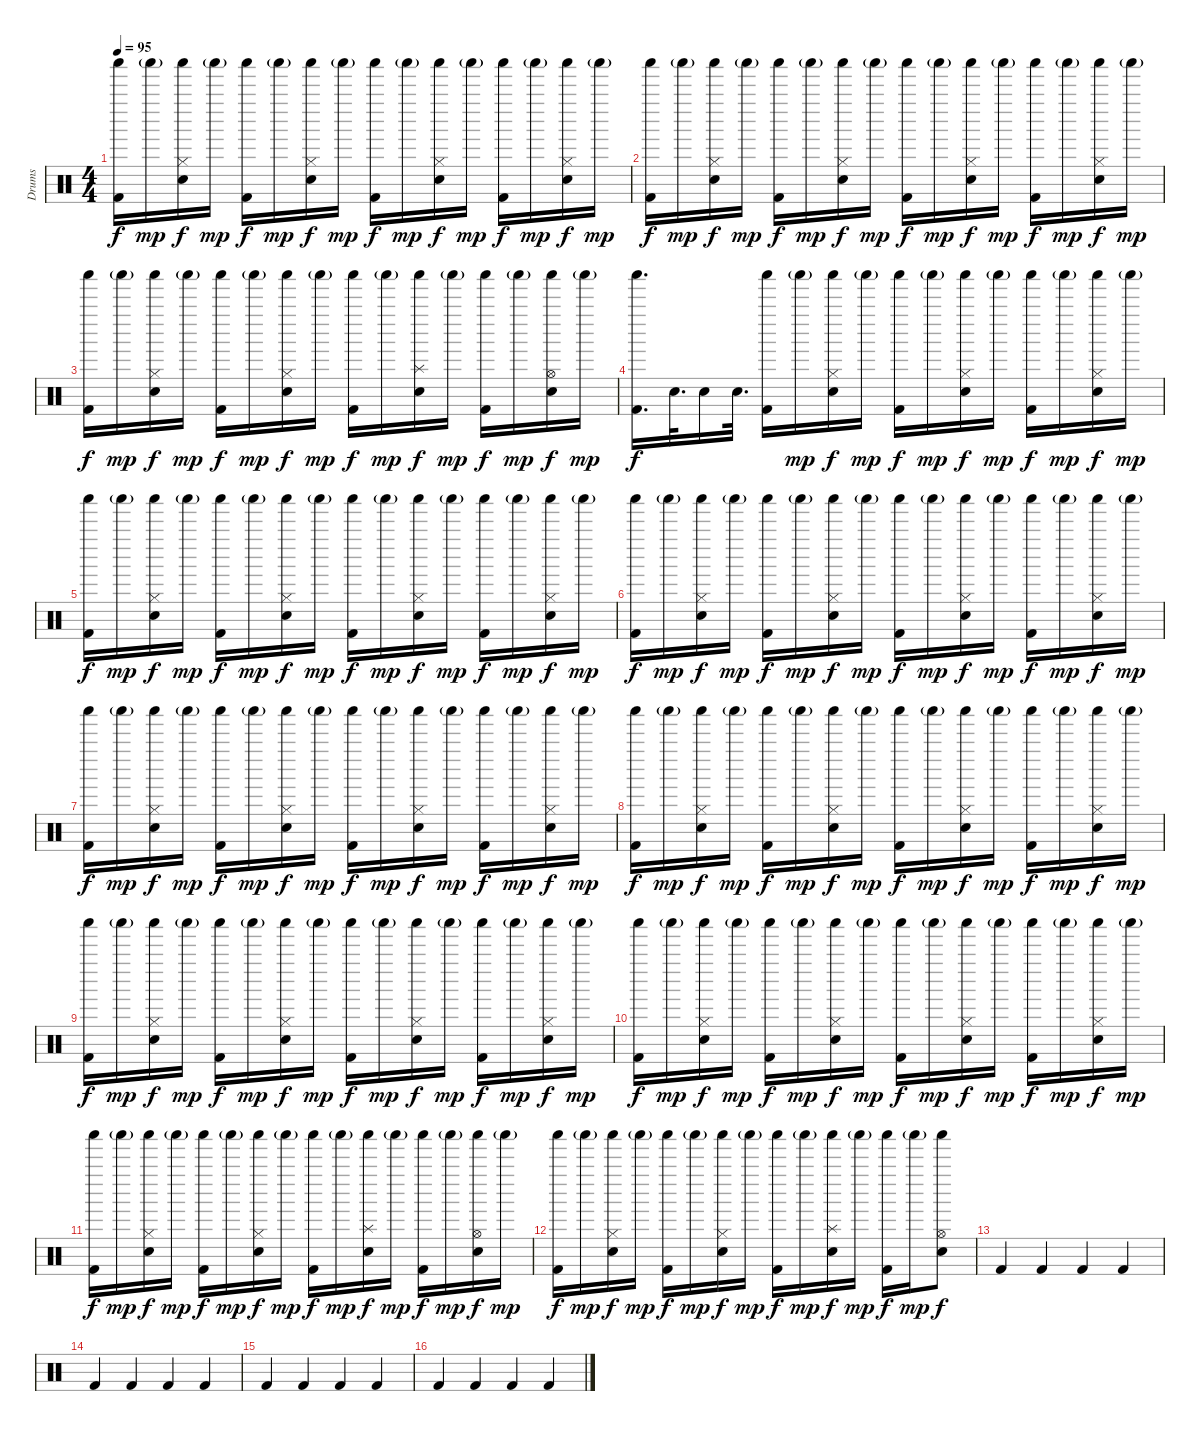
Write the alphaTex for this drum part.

\track ("Drums" "Drums") {instrument percussion}
\staff {score}
\articulation defaults
\ts (4 4)
\tempo 95
\clef neutral
\ks c
("Shaker (hit)" "Kick (hit) 2").16{dy f} "Shaker (hit)"{g}.16{dy mp} ("Shaker (hit)" "Hi-Hat (closed)" "Snare (hit) 2").16{dy f} "Shaker (hit)"{g}.16{dy mp} ("Shaker (hit)" "Kick (hit) 2").16{dy f} "Shaker (hit)"{g}.16{dy mp} ("Shaker (hit)" "Hi-Hat (closed)" "Snare (hit) 2").16{dy f} "Shaker (hit)"{g}.16{dy mp} ("Shaker (hit)" "Kick (hit) 2").16{dy f} "Shaker (hit)"{g}.16{dy mp} ("Shaker (hit)" "Hi-Hat (closed)" "Snare (hit) 2").16{dy f} "Shaker (hit)"{g}.16{dy mp} ("Shaker (hit)" "Kick (hit) 2").16{dy f} "Shaker (hit)"{g}.16{dy mp} ("Shaker (hit)" "Hi-Hat (closed)" "Snare (hit) 2").16{dy f} "Shaker (hit)"{g}.16{dy mp} |
("Shaker (hit)" "Kick (hit) 2").16{dy f} "Shaker (hit)"{g}.16{dy mp} ("Shaker (hit)" "Hi-Hat (closed)" "Snare (hit) 2").16{dy f} "Shaker (hit)"{g}.16{dy mp} ("Shaker (hit)" "Kick (hit) 2").16{dy f} "Shaker (hit)"{g}.16{dy mp} ("Shaker (hit)" "Hi-Hat (closed)" "Snare (hit) 2").16{dy f} "Shaker (hit)"{g}.16{dy mp} ("Shaker (hit)" "Kick (hit) 2").16{dy f} "Shaker (hit)"{g}.16{dy mp} ("Shaker (hit)" "Hi-Hat (closed)" "Snare (hit) 2").16{dy f} "Shaker (hit)"{g}.16{dy mp} ("Shaker (hit)" "Kick (hit) 2").16{dy f} "Shaker (hit)"{g}.16{dy mp} ("Shaker (hit)" "Hi-Hat (closed)" "Snare (hit) 2").16{dy f} "Shaker (hit)"{g}.16{dy mp} |
("Shaker (hit)" "Kick (hit) 2").16{dy f} "Shaker (hit)"{g}.16{dy mp} ("Shaker (hit)" "Hi-Hat (closed)" "Snare (hit) 2").16{dy f} "Shaker (hit)"{g}.16{dy mp} ("Shaker (hit)" "Kick (hit) 2").16{dy f} "Shaker (hit)"{g}.16{dy mp} ("Shaker (hit)" "Hi-Hat (closed)" "Snare (hit) 2").16{dy f} "Shaker (hit)"{g}.16{dy mp} ("Shaker (hit)" "Kick (hit) 2").16{dy f} "Shaker (hit)"{g}.16{dy mp} ("Shaker (hit)" "Splash (hit)" "Snare (hit) 2").16{dy f} "Shaker (hit)"{g}.16{dy mp} ("Shaker (hit)" "Kick (hit) 2").16{dy f} "Shaker (hit)"{g}.16{dy mp} ("Shaker (hit)" "Hi-Hat (open)" "Snare (hit) 2").16{dy f} "Shaker (hit)"{g}.16{dy mp} |
("Shaker (hit)" "Kick (hit) 2").16{d dy f} "Snare (hit) 2".32{d} "Snare (hit) 2".16 "Snare (hit) 2".32{d} ("Shaker (hit)" "Kick (hit) 2").16 "Shaker (hit)"{g}.16{dy mp} ("Shaker (hit)" "Hi-Hat (closed)" "Snare (hit) 2").16{dy f} "Shaker (hit)"{g}.16{dy mp} ("Shaker (hit)" "Kick (hit) 2").16{dy f} "Shaker (hit)"{g}.16{dy mp} ("Shaker (hit)" "Hi-Hat (closed)" "Snare (hit) 2").16{dy f} "Shaker (hit)"{g}.16{dy mp} ("Shaker (hit)" "Kick (hit) 2").16{dy f} "Shaker (hit)"{g}.16{dy mp} ("Shaker (hit)" "Hi-Hat (closed)" "Snare (hit) 2").16{dy f} "Shaker (hit)"{g}.16{dy mp} |
("Shaker (hit)" "Kick (hit) 2").16{dy f} "Shaker (hit)"{g}.16{dy mp} ("Shaker (hit)" "Hi-Hat (closed)" "Snare (hit) 2").16{dy f} "Shaker (hit)"{g}.16{dy mp} ("Shaker (hit)" "Kick (hit) 2").16{dy f} "Shaker (hit)"{g}.16{dy mp} ("Shaker (hit)" "Hi-Hat (closed)" "Snare (hit) 2").16{dy f} "Shaker (hit)"{g}.16{dy mp} ("Shaker (hit)" "Kick (hit) 2").16{dy f} "Shaker (hit)"{g}.16{dy mp} ("Shaker (hit)" "Hi-Hat (closed)" "Snare (hit) 2").16{dy f} "Shaker (hit)"{g}.16{dy mp} ("Shaker (hit)" "Kick (hit) 2").16{dy f} "Shaker (hit)"{g}.16{dy mp} ("Shaker (hit)" "Hi-Hat (closed)" "Snare (hit) 2").16{dy f} "Shaker (hit)"{g}.16{dy mp} |
("Shaker (hit)" "Kick (hit) 2").16{dy f} "Shaker (hit)"{g}.16{dy mp} ("Shaker (hit)" "Hi-Hat (closed)" "Snare (hit) 2").16{dy f} "Shaker (hit)"{g}.16{dy mp} ("Shaker (hit)" "Kick (hit) 2").16{dy f} "Shaker (hit)"{g}.16{dy mp} ("Shaker (hit)" "Hi-Hat (closed)" "Snare (hit) 2").16{dy f} "Shaker (hit)"{g}.16{dy mp} ("Shaker (hit)" "Kick (hit) 2").16{dy f} "Shaker (hit)"{g}.16{dy mp} ("Shaker (hit)" "Hi-Hat (closed)" "Snare (hit) 2").16{dy f} "Shaker (hit)"{g}.16{dy mp} ("Shaker (hit)" "Kick (hit) 2").16{dy f} "Shaker (hit)"{g}.16{dy mp} ("Shaker (hit)" "Hi-Hat (closed)" "Snare (hit) 2").16{dy f} "Shaker (hit)"{g}.16{dy mp} |
("Shaker (hit)" "Kick (hit) 2").16{dy f} "Shaker (hit)"{g}.16{dy mp} ("Shaker (hit)" "Hi-Hat (closed)" "Snare (hit) 2").16{dy f} "Shaker (hit)"{g}.16{dy mp} ("Shaker (hit)" "Kick (hit) 2").16{dy f} "Shaker (hit)"{g}.16{dy mp} ("Shaker (hit)" "Hi-Hat (closed)" "Snare (hit) 2").16{dy f} "Shaker (hit)"{g}.16{dy mp} ("Shaker (hit)" "Kick (hit) 2").16{dy f} "Shaker (hit)"{g}.16{dy mp} ("Shaker (hit)" "Hi-Hat (closed)" "Snare (hit) 2").16{dy f} "Shaker (hit)"{g}.16{dy mp} ("Shaker (hit)" "Kick (hit) 2").16{dy f} "Shaker (hit)"{g}.16{dy mp} ("Shaker (hit)" "Hi-Hat (closed)" "Snare (hit) 2").16{dy f} "Shaker (hit)"{g}.16{dy mp} |
("Shaker (hit)" "Kick (hit) 2").16{dy f} "Shaker (hit)"{g}.16{dy mp} ("Shaker (hit)" "Hi-Hat (closed)" "Snare (hit) 2").16{dy f} "Shaker (hit)"{g}.16{dy mp} ("Shaker (hit)" "Kick (hit) 2").16{dy f} "Shaker (hit)"{g}.16{dy mp} ("Shaker (hit)" "Hi-Hat (closed)" "Snare (hit) 2").16{dy f} "Shaker (hit)"{g}.16{dy mp} ("Shaker (hit)" "Kick (hit) 2").16{dy f} "Shaker (hit)"{g}.16{dy mp} ("Shaker (hit)" "Hi-Hat (closed)" "Snare (hit) 2").16{dy f} "Shaker (hit)"{g}.16{dy mp} ("Shaker (hit)" "Kick (hit) 2").16{dy f} "Shaker (hit)"{g}.16{dy mp} ("Shaker (hit)" "Hi-Hat (closed)" "Snare (hit) 2").16{dy f} "Shaker (hit)"{g}.16{dy mp} |
("Shaker (hit)" "Kick (hit) 2").16{dy f} "Shaker (hit)"{g}.16{dy mp} ("Shaker (hit)" "Hi-Hat (closed)" "Snare (hit) 2").16{dy f} "Shaker (hit)"{g}.16{dy mp} ("Shaker (hit)" "Kick (hit) 2").16{dy f} "Shaker (hit)"{g}.16{dy mp} ("Shaker (hit)" "Hi-Hat (closed)" "Snare (hit) 2").16{dy f} "Shaker (hit)"{g}.16{dy mp} ("Shaker (hit)" "Kick (hit) 2").16{dy f} "Shaker (hit)"{g}.16{dy mp} ("Shaker (hit)" "Hi-Hat (closed)" "Snare (hit) 2").16{dy f} "Shaker (hit)"{g}.16{dy mp} ("Shaker (hit)" "Kick (hit) 2").16{dy f} "Shaker (hit)"{g}.16{dy mp} ("Shaker (hit)" "Hi-Hat (closed)" "Snare (hit) 2").16{dy f} "Shaker (hit)"{g}.16{dy mp} |
("Shaker (hit)" "Kick (hit) 2").16{dy f} "Shaker (hit)"{g}.16{dy mp} ("Shaker (hit)" "Hi-Hat (closed)" "Snare (hit) 2").16{dy f} "Shaker (hit)"{g}.16{dy mp} ("Shaker (hit)" "Kick (hit) 2").16{dy f} "Shaker (hit)"{g}.16{dy mp} ("Shaker (hit)" "Hi-Hat (closed)" "Snare (hit) 2").16{dy f} "Shaker (hit)"{g}.16{dy mp} ("Shaker (hit)" "Kick (hit) 2").16{dy f} "Shaker (hit)"{g}.16{dy mp} ("Shaker (hit)" "Hi-Hat (closed)" "Snare (hit) 2").16{dy f} "Shaker (hit)"{g}.16{dy mp} ("Shaker (hit)" "Kick (hit) 2").16{dy f} "Shaker (hit)"{g}.16{dy mp} ("Shaker (hit)" "Hi-Hat (closed)" "Snare (hit) 2").16{dy f} "Shaker (hit)"{g}.16{dy mp} |
("Shaker (hit)" "Kick (hit) 2").16{dy f} "Shaker (hit)"{g}.16{dy mp} ("Shaker (hit)" "Hi-Hat (closed)" "Snare (hit) 2").16{dy f} "Shaker (hit)"{g}.16{dy mp} ("Shaker (hit)" "Kick (hit) 2").16{dy f} "Shaker (hit)"{g}.16{dy mp} ("Shaker (hit)" "Hi-Hat (closed)" "Snare (hit) 2").16{dy f} "Shaker (hit)"{g}.16{dy mp} ("Shaker (hit)" "Kick (hit) 2").16{dy f} "Shaker (hit)"{g}.16{dy mp} ("Shaker (hit)" "Splash (hit)" "Snare (hit) 2").16{dy f} "Shaker (hit)"{g}.16{dy mp} ("Shaker (hit)" "Kick (hit) 2").16{dy f} "Shaker (hit)"{g}.16{dy mp} ("Shaker (hit)" "Hi-Hat (open)" "Snare (hit) 2").16{dy f} "Shaker (hit)"{g}.16{dy mp} |
("Shaker (hit)" "Kick (hit) 2").16{dy f} "Shaker (hit)"{g}.16{dy mp} ("Shaker (hit)" "Hi-Hat (closed)" "Snare (hit) 2").16{dy f} "Shaker (hit)"{g}.16{dy mp} ("Shaker (hit)" "Kick (hit) 2").16{dy f} "Shaker (hit)"{g}.16{dy mp} ("Shaker (hit)" "Hi-Hat (closed)" "Snare (hit) 2").16{dy f} "Shaker (hit)"{g}.16{dy mp} ("Shaker (hit)" "Kick (hit) 2").16{dy f} "Shaker (hit)"{g}.16{dy mp} ("Shaker (hit)" "Splash (hit)" "Snare (hit) 2").16{dy f} "Shaker (hit)"{g}.16{dy mp} ("Shaker (hit)" "Kick (hit) 2").16{dy f} "Shaker (hit)"{g}.16{dy mp} ("Shaker (hit)" "Hi-Hat (open)" "Snare (hit) 2").8{dy f} |
"Kick (hit) 2".4 "Kick (hit) 2".4 "Kick (hit) 2".4 "Kick (hit) 2".4 |
"Kick (hit) 2".4 "Kick (hit) 2".4 "Kick (hit) 2".4 "Kick (hit) 2".4 |
"Kick (hit) 2".4 "Kick (hit) 2".4 "Kick (hit) 2".4 "Kick (hit) 2".4 |
"Kick (hit) 2".4 "Kick (hit) 2".4 "Kick (hit) 2".4 "Kick (hit) 2".4
